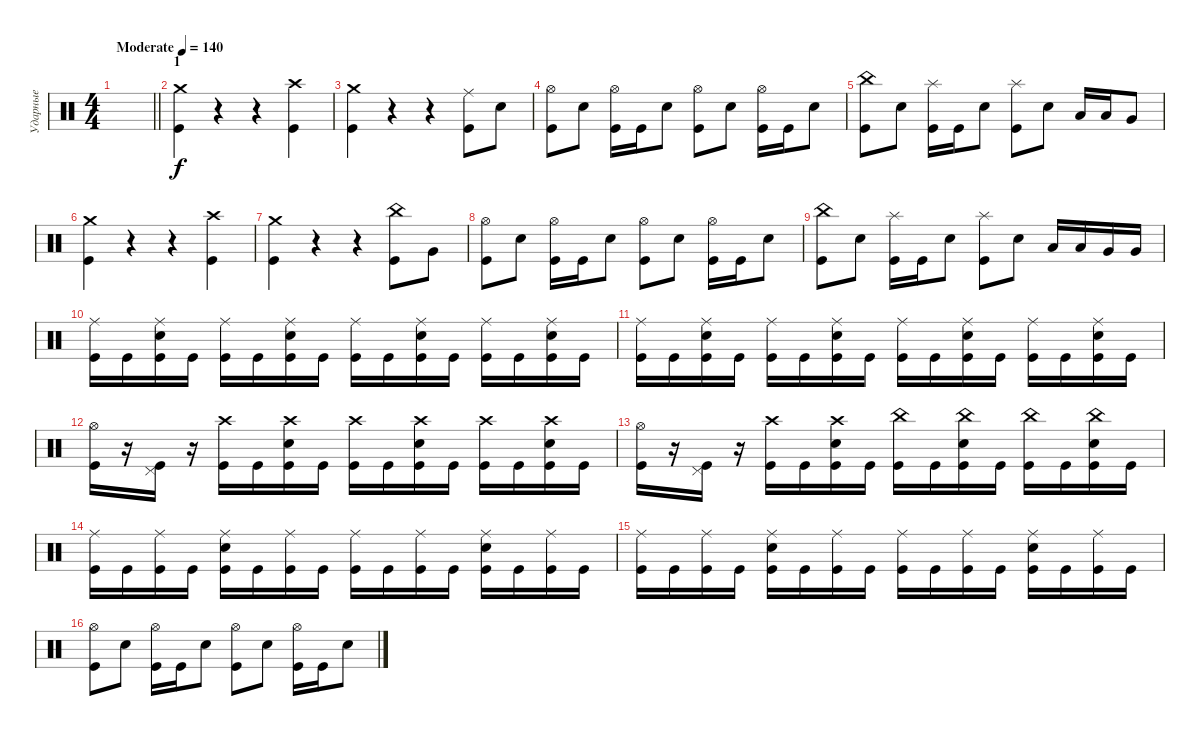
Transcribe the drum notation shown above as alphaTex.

\track ("Ударные" "Ударные") {instrument percussion}
\staff {score}
\articulation defaults
\ts (4 4)
\tempo (140 "Moderate")
\clef neutral
\barLineRight lightlight
\ks c
|
\section ("" "1")
("Crash medium (hit)" "Kick (hit)").4 r.4 r.4 ("Crash high (hit)" "Kick (hit)").4 |
("Crash medium (hit)" "Kick (hit)").4 r.4 r.4 ("Ride (middle)" "Kick (hit)").8 "Electric Snare (hit)".8 |
("Hi-Hat (open)" "Kick (hit)").8 "Electric Snare (hit)".8 ("Hi-Hat (open)" "Kick (hit)").16 "Kick (hit)".16 "Electric Snare (hit)".8 ("Hi-Hat (open)" "Kick (hit)").8 "Electric Snare (hit)".8 ("Hi-Hat (open)" "Kick (hit)").16 "Kick (hit)".16 "Electric Snare (hit)".8 |
("China (hit)" "Kick (hit)").8 "Electric Snare (hit)".8 ("Splash (hit)" "Kick (hit)").16 "Kick (hit)".16 "Electric Snare (hit)".8 ("Splash (hit)" "Kick (hit)").8 "Electric Snare (hit)".8 "Low Tom (hit)".16 "Low Tom (hit)".16 "Very Low Tom (hit)".8 |
("Crash medium (hit)" "Kick (hit)").4 r.4 r.4 ("Crash high (hit)" "Kick (hit)").4 |
("Crash medium (hit)" "Kick (hit)").4 r.4 r.4 ("China (hit)" "Kick (hit)").8 "Very Low Tom (hit)".8 |
("Hi-Hat (open)" "Kick (hit)").8 "Electric Snare (hit)".8 ("Hi-Hat (open)" "Kick (hit)").16 "Kick (hit)".16 "Electric Snare (hit)".8 ("Hi-Hat (open)" "Kick (hit)").8 "Electric Snare (hit)".8 ("Hi-Hat (open)" "Kick (hit)").16 "Kick (hit)".16 "Electric Snare (hit)".8 |
("China (hit)" "Kick (hit)").8 "Electric Snare (hit)".8 ("Splash (hit)" "Kick (hit)").16 "Kick (hit)".16 "Electric Snare (hit)".8 ("Splash (hit)" "Kick (hit)").8 "Electric Snare (hit)".8 "Low Tom (hit)".16 "Low Tom (hit)".16 "Very Low Tom (hit)".16 "Very Low Tom (hit)".16 |
("Ride (middle)" "Kick (hit)").16 "Kick (hit)".16 ("Ride (middle)" "Electric Snare (hit)" "Kick (hit)").16 "Kick (hit)".16 ("Ride (middle)" "Kick (hit)").16 "Kick (hit)".16 ("Ride (middle)" "Electric Snare (hit)" "Kick (hit)").16 "Kick (hit)".16 ("Ride (middle)" "Kick (hit)").16 "Kick (hit)".16 ("Ride (middle)" "Electric Snare (hit)" "Kick (hit)").16 "Kick (hit)".16 ("Ride (middle)" "Kick (hit)").16 "Kick (hit)".16 ("Ride (middle)" "Electric Snare (hit)" "Kick (hit)").16 "Kick (hit)".16 |
("Ride (middle)" "Kick (hit)").16 "Kick (hit)".16 ("Ride (middle)" "Electric Snare (hit)" "Kick (hit)").16 "Kick (hit)".16 ("Ride (middle)" "Kick (hit)").16 "Kick (hit)".16 ("Ride (middle)" "Electric Snare (hit)" "Kick (hit)").16 "Kick (hit)".16 ("Ride (middle)" "Kick (hit)").16 "Kick (hit)".16 ("Ride (middle)" "Electric Snare (hit)" "Kick (hit)").16 "Kick (hit)".16 ("Ride (middle)" "Kick (hit)").16 "Kick (hit)".16 ("Ride (middle)" "Electric Snare (hit)" "Kick (hit)").16 "Kick (hit)".16 |
("Hi-Hat (open)" "Kick (hit)").16 r.16 ("Pedal Hi-Hat (hit)" "Kick (hit)").16 r.16 ("Crash high (hit)" "Kick (hit)").16 "Kick (hit)".16 ("Crash high (hit)" "Electric Snare (hit)" "Kick (hit)").16 "Kick (hit)".16 ("Crash high (hit)" "Kick (hit)").16 "Kick (hit)".16 ("Crash high (hit)" "Electric Snare (hit)" "Kick (hit)").16 "Kick (hit)".16 ("Crash high (hit)" "Kick (hit)").16 "Kick (hit)".16 ("Crash high (hit)" "Electric Snare (hit)" "Kick (hit)").16 "Kick (hit)".16 |
("Hi-Hat (open)" "Kick (hit)").16 r.16 ("Pedal Hi-Hat (hit)" "Kick (hit)").16 r.16 ("Crash high (hit)" "Kick (hit)").16 "Kick (hit)".16 ("Crash high (hit)" "Electric Snare (hit)" "Kick (hit)").16 "Kick (hit)".16 ("China (hit)" "Kick (hit)").16 "Kick (hit)".16 ("China (hit)" "Electric Snare (hit)" "Kick (hit)").16 "Kick (hit)".16 ("China (hit)" "Kick (hit)").16 "Kick (hit)".16 ("China (hit)" "Electric Snare (hit)" "Kick (hit)").16 "Kick (hit)".16 |
("Ride (middle)" "Kick (hit)").16 "Kick (hit)".16 ("Ride (middle)" "Kick (hit)").16 "Kick (hit)".16 ("Ride (middle)" "Electric Snare (hit)" "Kick (hit)").16 "Kick (hit)".16 ("Ride (middle)" "Kick (hit)").16 "Kick (hit)".16 ("Ride (middle)" "Kick (hit)").16 "Kick (hit)".16 ("Ride (middle)" "Kick (hit)").16 "Kick (hit)".16 ("Ride (middle)" "Electric Snare (hit)" "Kick (hit)").16 "Kick (hit)".16 ("Ride (middle)" "Kick (hit)").16 "Kick (hit)".16 |
("Ride (middle)" "Kick (hit)").16 "Kick (hit)".16 ("Ride (middle)" "Kick (hit)").16 "Kick (hit)".16 ("Ride (middle)" "Electric Snare (hit)" "Kick (hit)").16 "Kick (hit)".16 ("Ride (middle)" "Kick (hit)").16 "Kick (hit)".16 ("Ride (middle)" "Kick (hit)").16 "Kick (hit)".16 ("Ride (middle)" "Kick (hit)").16 "Kick (hit)".16 ("Ride (middle)" "Electric Snare (hit)" "Kick (hit)").16 "Kick (hit)".16 ("Ride (middle)" "Kick (hit)").16 "Kick (hit)".16 |
("Hi-Hat (open)" "Kick (hit)").8 "Electric Snare (hit)".8 ("Hi-Hat (open)" "Kick (hit)").16 "Kick (hit)".16 "Electric Snare (hit)".8 ("Hi-Hat (open)" "Kick (hit)").8 "Electric Snare (hit)".8 ("Hi-Hat (open)" "Kick (hit)").16 "Kick (hit)".16 "Electric Snare (hit)".8
